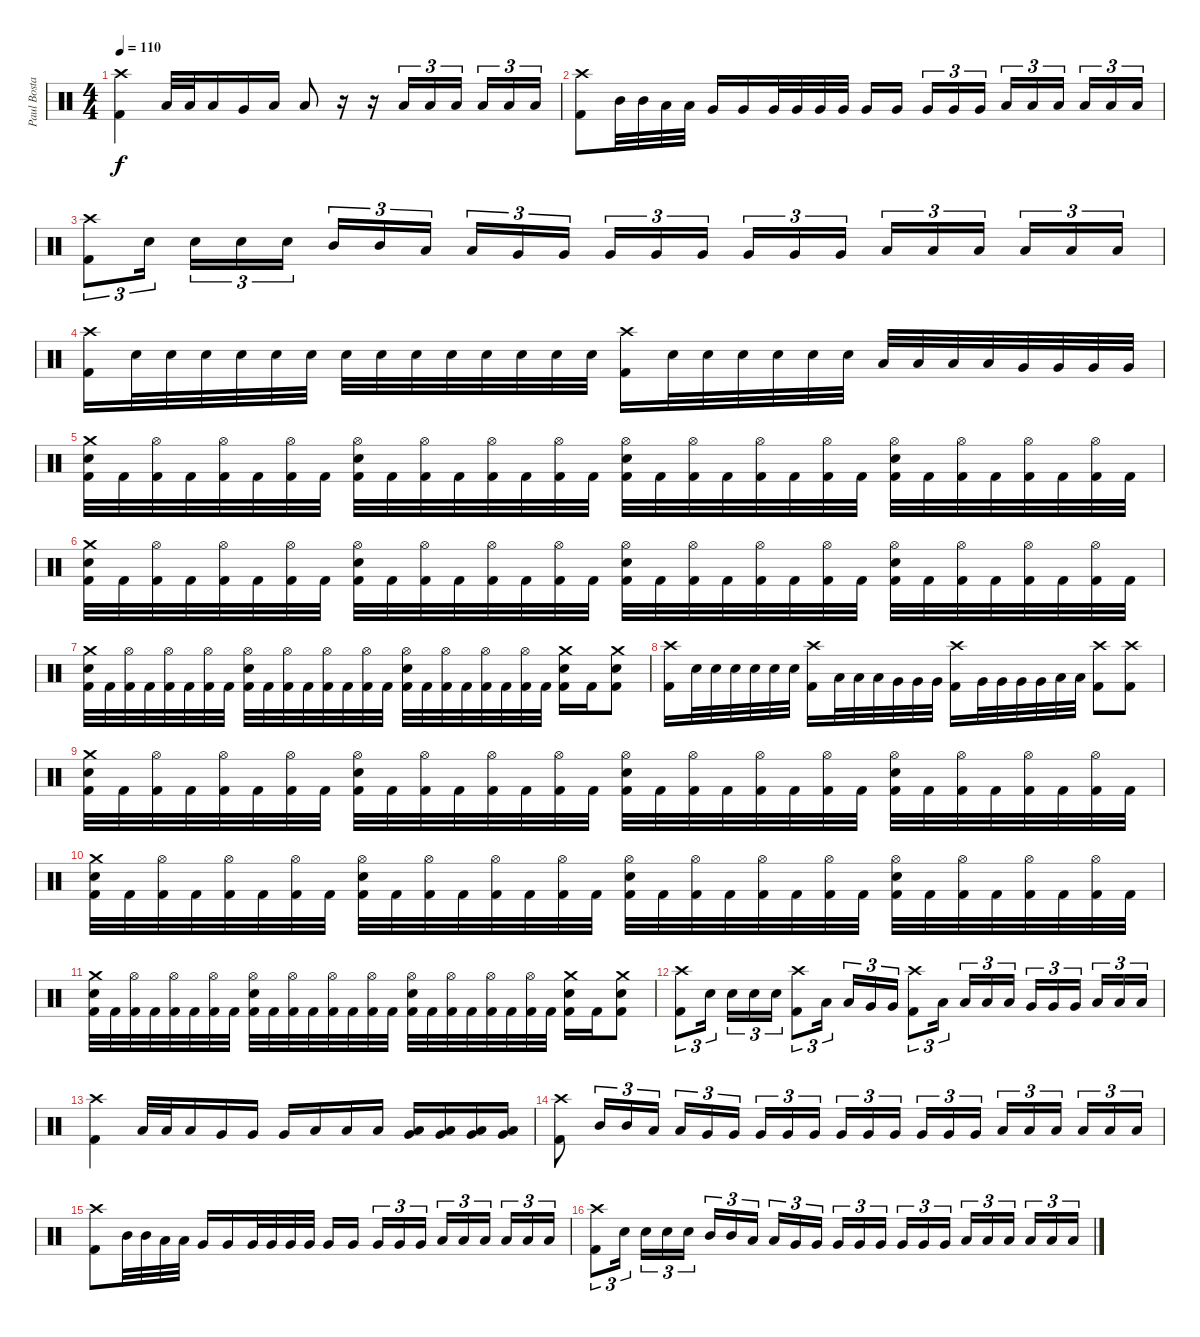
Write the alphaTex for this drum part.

\track ("Paul Bostaph" "Paul Bosta") {instrument percussion}
\staff {score}
\articulation defaults
\ts (4 4)
\tempo 110
\clef neutral
\ks c
("Crash high (hit)" "Kick (hit) 2").4{dy f} "Low Tom (hit)".32 "Low Tom (hit)".32 "Low Tom (hit)".16 "Very Low Tom (hit)".16 "Low Floor Tom (hit)".16 "Low Floor Tom (hit)".8 r.16 r.16 "Low Floor Tom (hit)".16{tu (3 2)} "Low Floor Tom (hit)".16{tu (3 2)} "Low Floor Tom (hit)".16{tu (3 2)} "Low Floor Tom (hit)".16{tu (3 2)} "Low Floor Tom (hit)".16{tu (3 2)} "Low Floor Tom (hit)".16{tu (3 2)} |
("Crash high (hit)" "Kick (hit) 2").8 "Mid Tom (hit)".32 "Mid Tom (hit)".32 "Low Tom (hit)".32 "Low Tom (hit)".32 "Very Low Tom (hit)".16 "Very Low Tom (hit)".16 "Very Low Tom (hit)".32 "Very Low Tom (hit)".32 "Very Low Tom (hit)".32 "Very Low Tom (hit)".32 "Very Low Tom (hit)".16 "Very Low Tom (hit)".16 "Very Low Tom (hit)".16{tu (3 2)} "Very Low Tom (hit)".16{tu (3 2)} "Very Low Tom (hit)".16{tu (3 2)} "Low Floor Tom (hit)".16{tu (3 2)} "Low Floor Tom (hit)".16{tu (3 2)} "Low Floor Tom (hit)".16{tu (3 2)} "Low Floor Tom (hit)".16{tu (3 2)} "Low Floor Tom (hit)".16{tu (3 2)} "Low Floor Tom (hit)".16{tu (3 2)} |
("Crash high (hit)" "Kick (hit) 2").8{tu (3 2)} "Electric Snare (hit)".16{tu (3 2)} "Electric Snare (hit)".16{tu (3 2)} "Electric Snare (hit)".16{tu (3 2)} "Electric Snare (hit)".16{tu (3 2)} "Mid Tom (hit)".16{tu (3 2)} "Mid Tom (hit)".16{tu (3 2)} "Low Tom (hit)".16{tu (3 2)} "Low Tom (hit)".16{tu (3 2)} "Very Low Tom (hit)".16{tu (3 2)} "Very Low Tom (hit)".16{tu (3 2)} "Very Low Tom (hit)".16{tu (3 2)} "Very Low Tom (hit)".16{tu (3 2)} "Very Low Tom (hit)".16{tu (3 2)} "Very Low Tom (hit)".16{tu (3 2)} "Very Low Tom (hit)".16{tu (3 2)} "Very Low Tom (hit)".16{tu (3 2)} "Low Floor Tom (hit)".16{tu (3 2)} "Low Floor Tom (hit)".16{tu (3 2)} "Low Floor Tom (hit)".16{tu (3 2)} "Low Floor Tom (hit)".16{tu (3 2)} "Low Floor Tom (hit)".16{tu (3 2)} "Low Floor Tom (hit)".16{tu (3 2)} |
("Crash high (hit)" "Kick (hit) 2").16 "Electric Snare (hit)".32 "Electric Snare (hit)".32 "Electric Snare (hit)".32 "Electric Snare (hit)".32 "Electric Snare (hit)".32 "Electric Snare (hit)".32 "Electric Snare (hit)".32 "Electric Snare (hit)".32 "Electric Snare (hit)".32 "Electric Snare (hit)".32 "Electric Snare (hit)".32 "Electric Snare (hit)".32 "Electric Snare (hit)".32 "Electric Snare (hit)".32 ("Crash high (hit)" "Kick (hit) 2").16 "Electric Snare (hit)".32 "Electric Snare (hit)".32 "Electric Snare (hit)".32 "Electric Snare (hit)".32 "Electric Snare (hit)".32 "Electric Snare (hit)".32 "Low Tom (hit)".32 "Low Tom (hit)".32 "Low Tom (hit)".32 "Low Tom (hit)".32 "Very Low Tom (hit)".32 "Very Low Tom (hit)".32 "Very Low Tom (hit)".32 "Very Low Tom (hit)".32 |
("Crash medium (hit)" "Electric Snare (hit)" "Kick (hit) 2").32 "Kick (hit) 2".32 ("Hi-Hat (open)" "Kick (hit) 2").32 "Kick (hit) 2".32 ("Hi-Hat (open)" "Kick (hit) 2").32 "Kick (hit) 2".32 ("Hi-Hat (open)" "Kick (hit) 2").32 "Kick (hit) 2".32 ("Hi-Hat (open)" "Electric Snare (hit)" "Kick (hit) 2").32 "Kick (hit) 2".32 ("Hi-Hat (open)" "Kick (hit) 2").32 "Kick (hit) 2".32 ("Hi-Hat (open)" "Kick (hit) 2").32 "Kick (hit) 2".32 ("Hi-Hat (open)" "Kick (hit) 2").32 "Kick (hit) 2".32 ("Hi-Hat (open)" "Electric Snare (hit)" "Kick (hit) 2").32 "Kick (hit) 2".32 ("Hi-Hat (open)" "Kick (hit) 2").32 "Kick (hit) 2".32 ("Hi-Hat (open)" "Kick (hit) 2").32 "Kick (hit) 2".32 ("Hi-Hat (open)" "Kick (hit) 2").32 "Kick (hit) 2".32 ("Hi-Hat (open)" "Electric Snare (hit)" "Kick (hit) 2").32 "Kick (hit) 2".32 ("Hi-Hat (open)" "Kick (hit) 2").32 "Kick (hit) 2".32 ("Hi-Hat (open)" "Kick (hit) 2").32 "Kick (hit) 2".32 ("Hi-Hat (open)" "Kick (hit) 2").32 "Kick (hit) 2".32 |
("Crash medium (hit)" "Electric Snare (hit)" "Kick (hit) 2").32 "Kick (hit) 2".32 ("Hi-Hat (open)" "Kick (hit) 2").32 "Kick (hit) 2".32 ("Hi-Hat (open)" "Kick (hit) 2").32 "Kick (hit) 2".32 ("Hi-Hat (open)" "Kick (hit) 2").32 "Kick (hit) 2".32 ("Hi-Hat (open)" "Electric Snare (hit)" "Kick (hit) 2").32 "Kick (hit) 2".32 ("Hi-Hat (open)" "Kick (hit) 2").32 "Kick (hit) 2".32 ("Hi-Hat (open)" "Kick (hit) 2").32 "Kick (hit) 2".32 ("Hi-Hat (open)" "Kick (hit) 2").32 "Kick (hit) 2".32 ("Hi-Hat (open)" "Electric Snare (hit)" "Kick (hit) 2").32 "Kick (hit) 2".32 ("Hi-Hat (open)" "Kick (hit) 2").32 "Kick (hit) 2".32 ("Hi-Hat (open)" "Kick (hit) 2").32 "Kick (hit) 2".32 ("Hi-Hat (open)" "Kick (hit) 2").32 "Kick (hit) 2".32 ("Hi-Hat (open)" "Electric Snare (hit)" "Kick (hit) 2").32 "Kick (hit) 2".32 ("Hi-Hat (open)" "Kick (hit) 2").32 "Kick (hit) 2".32 ("Hi-Hat (open)" "Kick (hit) 2").32 "Kick (hit) 2".32 ("Hi-Hat (open)" "Kick (hit) 2").32 "Kick (hit) 2".32 |
("Crash medium (hit)" "Electric Snare (hit)" "Kick (hit) 2").32 "Kick (hit) 2".32 ("Hi-Hat (open)" "Kick (hit) 2").32 "Kick (hit) 2".32 ("Hi-Hat (open)" "Kick (hit) 2").32 "Kick (hit) 2".32 ("Hi-Hat (open)" "Kick (hit) 2").32 "Kick (hit) 2".32 ("Hi-Hat (open)" "Electric Snare (hit)" "Kick (hit) 2").32 "Kick (hit) 2".32 ("Hi-Hat (open)" "Kick (hit) 2").32 "Kick (hit) 2".32 ("Hi-Hat (open)" "Kick (hit) 2").32 "Kick (hit) 2".32 ("Hi-Hat (open)" "Kick (hit) 2").32 "Kick (hit) 2".32 ("Hi-Hat (open)" "Electric Snare (hit)" "Kick (hit) 2").32 "Kick (hit) 2".32 ("Hi-Hat (open)" "Kick (hit) 2").32 "Kick (hit) 2".32 ("Hi-Hat (open)" "Kick (hit) 2").32 "Kick (hit) 2".32 ("Hi-Hat (open)" "Kick (hit) 2").32 "Kick (hit) 2".32 ("Crash medium (hit)" "Electric Snare (hit)" "Kick (hit) 2").16 "Kick (hit) 2".16 ("Crash medium (hit)" "Electric Snare (hit)" "Kick (hit) 2").8 |
("Crash high (hit)" "Kick (hit) 2").16 "Electric Snare (hit)".32 "Electric Snare (hit)".32 "Electric Snare (hit)".32 "Electric Snare (hit)".32 "Electric Snare (hit)".32 "Electric Snare (hit)".32 ("Kick (hit) 2" "Crash high (hit)").16 "Low Tom (hit)".32 "Low Tom (hit)".32 "Low Tom (hit)".32 "Very Low Tom (hit)".32 "Very Low Tom (hit)".32 "Very Low Tom (hit)".32 ("Kick (hit) 2" "Crash high (hit)").16 "Very Low Tom (hit)".32 "Very Low Tom (hit)".32 "Very Low Tom (hit)".32 "Very Low Tom (hit)".32 "Low Floor Tom (hit)".32 "Low Floor Tom (hit)".32 ("Kick (hit) 2" "Crash high (hit)").8 ("Kick (hit) 2" "Crash high (hit)").8 |
("Crash medium (hit)" "Electric Snare (hit)" "Kick (hit) 2").32 "Kick (hit) 2".32 ("Hi-Hat (open)" "Kick (hit) 2").32 "Kick (hit) 2".32 ("Hi-Hat (open)" "Kick (hit) 2").32 "Kick (hit) 2".32 ("Hi-Hat (open)" "Kick (hit) 2").32 "Kick (hit) 2".32 ("Hi-Hat (open)" "Electric Snare (hit)" "Kick (hit) 2").32 "Kick (hit) 2".32 ("Hi-Hat (open)" "Kick (hit) 2").32 "Kick (hit) 2".32 ("Hi-Hat (open)" "Kick (hit) 2").32 "Kick (hit) 2".32 ("Hi-Hat (open)" "Kick (hit) 2").32 "Kick (hit) 2".32 ("Hi-Hat (open)" "Electric Snare (hit)" "Kick (hit) 2").32 "Kick (hit) 2".32 ("Hi-Hat (open)" "Kick (hit) 2").32 "Kick (hit) 2".32 ("Hi-Hat (open)" "Kick (hit) 2").32 "Kick (hit) 2".32 ("Hi-Hat (open)" "Kick (hit) 2").32 "Kick (hit) 2".32 ("Hi-Hat (open)" "Electric Snare (hit)" "Kick (hit) 2").32 "Kick (hit) 2".32 ("Hi-Hat (open)" "Kick (hit) 2").32 "Kick (hit) 2".32 ("Hi-Hat (open)" "Kick (hit) 2").32 "Kick (hit) 2".32 ("Hi-Hat (open)" "Kick (hit) 2").32 "Kick (hit) 2".32 |
("Crash medium (hit)" "Electric Snare (hit)" "Kick (hit) 2").32 "Kick (hit) 2".32 ("Hi-Hat (open)" "Kick (hit) 2").32 "Kick (hit) 2".32 ("Hi-Hat (open)" "Kick (hit) 2").32 "Kick (hit) 2".32 ("Hi-Hat (open)" "Kick (hit) 2").32 "Kick (hit) 2".32 ("Hi-Hat (open)" "Electric Snare (hit)" "Kick (hit) 2").32 "Kick (hit) 2".32 ("Hi-Hat (open)" "Kick (hit) 2").32 "Kick (hit) 2".32 ("Hi-Hat (open)" "Kick (hit) 2").32 "Kick (hit) 2".32 ("Hi-Hat (open)" "Kick (hit) 2").32 "Kick (hit) 2".32 ("Hi-Hat (open)" "Electric Snare (hit)" "Kick (hit) 2").32 "Kick (hit) 2".32 ("Hi-Hat (open)" "Kick (hit) 2").32 "Kick (hit) 2".32 ("Hi-Hat (open)" "Kick (hit) 2").32 "Kick (hit) 2".32 ("Hi-Hat (open)" "Kick (hit) 2").32 "Kick (hit) 2".32 ("Hi-Hat (open)" "Electric Snare (hit)" "Kick (hit) 2").32 "Kick (hit) 2".32 ("Hi-Hat (open)" "Kick (hit) 2").32 "Kick (hit) 2".32 ("Hi-Hat (open)" "Kick (hit) 2").32 "Kick (hit) 2".32 ("Hi-Hat (open)" "Kick (hit) 2").32 "Kick (hit) 2".32 |
("Crash medium (hit)" "Electric Snare (hit)" "Kick (hit) 2").32 "Kick (hit) 2".32 ("Hi-Hat (open)" "Kick (hit) 2").32 "Kick (hit) 2".32 ("Hi-Hat (open)" "Kick (hit) 2").32 "Kick (hit) 2".32 ("Hi-Hat (open)" "Kick (hit) 2").32 "Kick (hit) 2".32 ("Hi-Hat (open)" "Electric Snare (hit)" "Kick (hit) 2").32 "Kick (hit) 2".32 ("Hi-Hat (open)" "Kick (hit) 2").32 "Kick (hit) 2".32 ("Hi-Hat (open)" "Kick (hit) 2").32 "Kick (hit) 2".32 ("Hi-Hat (open)" "Kick (hit) 2").32 "Kick (hit) 2".32 ("Hi-Hat (open)" "Electric Snare (hit)" "Kick (hit) 2").32 "Kick (hit) 2".32 ("Hi-Hat (open)" "Kick (hit) 2").32 "Kick (hit) 2".32 ("Hi-Hat (open)" "Kick (hit) 2").32 "Kick (hit) 2".32 ("Hi-Hat (open)" "Kick (hit) 2").32 "Kick (hit) 2".32 ("Crash medium (hit)" "Electric Snare (hit)" "Kick (hit) 2").16 "Kick (hit) 2".16 ("Crash medium (hit)" "Electric Snare (hit)" "Kick (hit) 2").8 |
("Crash high (hit)" "Kick (hit) 2").8{tu (3 2)} "Electric Snare (hit)".16{tu (3 2)} "Electric Snare (hit)".16{tu (3 2)} "Electric Snare (hit)".16{tu (3 2)} "Electric Snare (hit)".16{tu (3 2)} ("Kick (hit) 2" "Crash high (hit)").8{tu (3 2)} "Low Tom (hit)".16{tu (3 2)} "Low Tom (hit)".16{tu (3 2)} "Very Low Tom (hit)".16{tu (3 2)} "Very Low Tom (hit)".16{tu (3 2)} ("Kick (hit) 2" "Crash high (hit)").8{tu (3 2)} "Low Tom (hit)".16{tu (3 2)} "Low Tom (hit)".16{tu (3 2)} "Low Tom (hit)".16{tu (3 2)} "Low Tom (hit)".16{tu (3 2)} "Very Low Tom (hit)".16{tu (3 2)} "Very Low Tom (hit)".16{tu (3 2)} "Very Low Tom (hit)".16{tu (3 2)} "Low Floor Tom (hit)".16{tu (3 2)} "Low Floor Tom (hit)".16{tu (3 2)} "Low Floor Tom (hit)".16{tu (3 2)} |
("Crash high (hit)" "Kick (hit) 2").4 "Low Tom (hit)".32 "Low Tom (hit)".32 "Low Tom (hit)".16 "Very Low Tom (hit)".16 "Very Low Tom (hit)".16 "Very Low Tom (hit)".16 "Low Floor Tom (hit)".16 "Low Floor Tom (hit)".16 "Low Floor Tom (hit)".16 ("Very Low Tom (hit)" "Low Floor Tom (hit)").16 ("Very Low Tom (hit)" "Low Floor Tom (hit)").16 ("Very Low Tom (hit)" "Low Floor Tom (hit)").16 ("Very Low Tom (hit)" "Low Floor Tom (hit)").16 |
("Crash high (hit)" "Kick (hit) 2").8 "Mid Tom (hit)".16{tu (3 2)} "Mid Tom (hit)".16{tu (3 2)} "Low Tom (hit)".16{tu (3 2)} "Low Tom (hit)".16{tu (3 2)} "Very Low Tom (hit)".16{tu (3 2)} "Very Low Tom (hit)".16{tu (3 2)} "Very Low Tom (hit)".16{tu (3 2)} "Very Low Tom (hit)".16{tu (3 2)} "Very Low Tom (hit)".16{tu (3 2)} "Very Low Tom (hit)".16{tu (3 2)} "Very Low Tom (hit)".16{tu (3 2)} "Very Low Tom (hit)".16{tu (3 2)} "Very Low Tom (hit)".16{tu (3 2)} "Very Low Tom (hit)".16{tu (3 2)} "Very Low Tom (hit)".16{tu (3 2)} "Low Floor Tom (hit)".16{tu (3 2)} "Low Floor Tom (hit)".16{tu (3 2)} "Low Floor Tom (hit)".16{tu (3 2)} "Low Floor Tom (hit)".16{tu (3 2)} "Low Floor Tom (hit)".16{tu (3 2)} "Low Floor Tom (hit)".16{tu (3 2)} |
("Crash high (hit)" "Kick (hit) 2").8 "Mid Tom (hit)".32 "Mid Tom (hit)".32 "Low Tom (hit)".32 "Low Tom (hit)".32 "Very Low Tom (hit)".16 "Very Low Tom (hit)".16 "Very Low Tom (hit)".32 "Very Low Tom (hit)".32 "Very Low Tom (hit)".32 "Very Low Tom (hit)".32 "Very Low Tom (hit)".16 "Very Low Tom (hit)".16 "Very Low Tom (hit)".16{tu (3 2)} "Very Low Tom (hit)".16{tu (3 2)} "Very Low Tom (hit)".16{tu (3 2)} "Low Floor Tom (hit)".16{tu (3 2)} "Low Floor Tom (hit)".16{tu (3 2)} "Low Floor Tom (hit)".16{tu (3 2)} "Low Floor Tom (hit)".16{tu (3 2)} "Low Floor Tom (hit)".16{tu (3 2)} "Low Floor Tom (hit)".16{tu (3 2)} |
("Crash high (hit)" "Kick (hit) 2").8{tu (3 2)} "Electric Snare (hit)".16{tu (3 2)} "Electric Snare (hit)".16{tu (3 2)} "Electric Snare (hit)".16{tu (3 2)} "Electric Snare (hit)".16{tu (3 2)} "Mid Tom (hit)".16{tu (3 2)} "Mid Tom (hit)".16{tu (3 2)} "Low Tom (hit)".16{tu (3 2)} "Low Tom (hit)".16{tu (3 2)} "Very Low Tom (hit)".16{tu (3 2)} "Very Low Tom (hit)".16{tu (3 2)} "Very Low Tom (hit)".16{tu (3 2)} "Very Low Tom (hit)".16{tu (3 2)} "Very Low Tom (hit)".16{tu (3 2)} "Very Low Tom (hit)".16{tu (3 2)} "Very Low Tom (hit)".16{tu (3 2)} "Very Low Tom (hit)".16{tu (3 2)} "Low Floor Tom (hit)".16{tu (3 2)} "Low Floor Tom (hit)".16{tu (3 2)} "Low Floor Tom (hit)".16{tu (3 2)} "Low Floor Tom (hit)".16{tu (3 2)} "Low Floor Tom (hit)".16{tu (3 2)} "Low Floor Tom (hit)".16{tu (3 2)}
